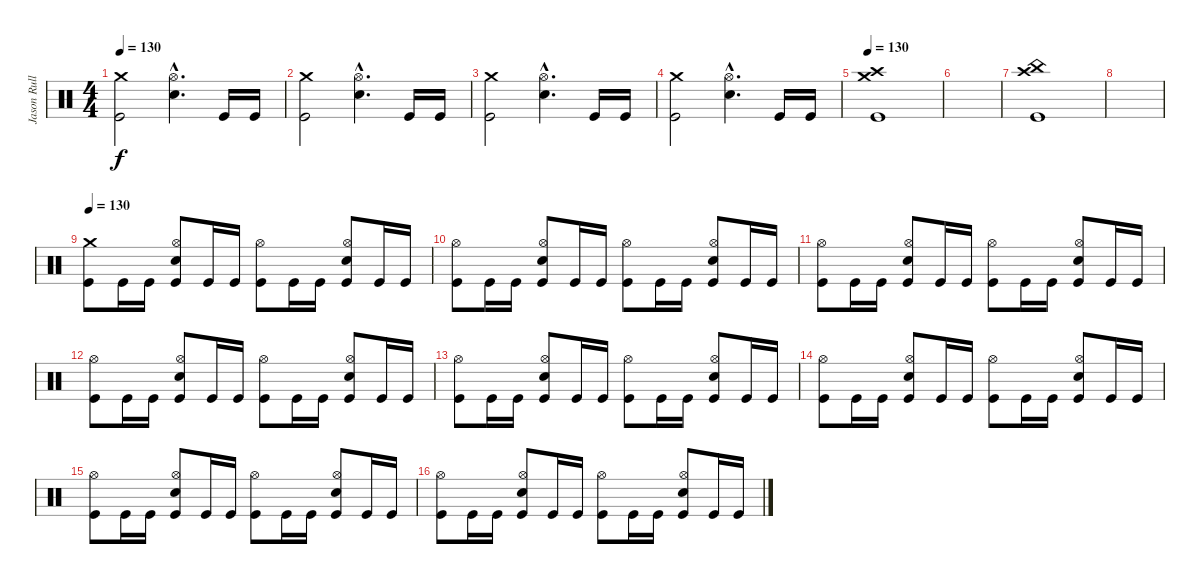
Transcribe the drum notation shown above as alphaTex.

\track ("Jason Rullo - Batterie" "Jason Rull") {instrument percussion}
\staff {score}
\articulation defaults
\ts (4 4)
\tempo 130
\clef neutral
\ks c
("Crash medium (hit)" "Kick (hit)").2{dy f} ("Hi-Hat (open)"{hac} "Snare (hit) 2"{hac}).4{d} "Kick (hit)".16 "Kick (hit)".16 |
("Crash medium (hit)" "Kick (hit)").2 ("Hi-Hat (open)"{hac} "Snare (hit) 2"{hac}).4{d} "Kick (hit)".16 "Kick (hit)".16 |
("Crash medium (hit)" "Kick (hit)").2 ("Hi-Hat (open)"{hac} "Snare (hit) 2"{hac}).4{d} "Kick (hit)".16 "Kick (hit)".16 |
("Crash medium (hit)" "Kick (hit)").2 ("Hi-Hat (open)"{hac} "Snare (hit) 2"{hac}).4{d} "Kick (hit)".16 "Kick (hit)".16 |
\tempo 130
("Crash medium (hit)" "Crash high (hit)" "Kick (hit)").1 |
|
("China (hit)" "Crash high (hit)" "Kick (hit)").1 |
|
\tempo 130
("Crash medium (hit)" "Kick (hit)").8 "Kick (hit)".16 "Kick (hit)".16 ("Hi-Hat (open)" "Snare (hit) 2" "Kick (hit)").8 "Kick (hit)".16 "Kick (hit)".16 ("Hi-Hat (open)" "Kick (hit)").8 "Kick (hit)".16 "Kick (hit)".16 ("Hi-Hat (open)" "Snare (hit) 2" "Kick (hit)").8 "Kick (hit)".16 "Kick (hit)".16 |
("Hi-Hat (open)" "Kick (hit)").8 "Kick (hit)".16 "Kick (hit)".16 ("Hi-Hat (open)" "Snare (hit) 2" "Kick (hit)").8 "Kick (hit)".16 "Kick (hit)".16 ("Hi-Hat (open)" "Kick (hit)").8 "Kick (hit)".16 "Kick (hit)".16 ("Hi-Hat (open)" "Snare (hit) 2" "Kick (hit)").8 "Kick (hit)".16 "Kick (hit)".16 |
("Hi-Hat (open)" "Kick (hit)").8 "Kick (hit)".16 "Kick (hit)".16 ("Hi-Hat (open)" "Snare (hit) 2" "Kick (hit)").8 "Kick (hit)".16 "Kick (hit)".16 ("Hi-Hat (open)" "Kick (hit)").8 "Kick (hit)".16 "Kick (hit)".16 ("Hi-Hat (open)" "Snare (hit) 2" "Kick (hit)").8 "Kick (hit)".16 "Kick (hit)".16 |
("Hi-Hat (open)" "Kick (hit)").8 "Kick (hit)".16 "Kick (hit)".16 ("Hi-Hat (open)" "Snare (hit) 2" "Kick (hit)").8 "Kick (hit)".16 "Kick (hit)".16 ("Hi-Hat (open)" "Kick (hit)").8 "Kick (hit)".16 "Kick (hit)".16 ("Hi-Hat (open)" "Snare (hit) 2" "Kick (hit)").8 "Kick (hit)".16 "Kick (hit)".16 |
("Hi-Hat (open)" "Kick (hit)").8 "Kick (hit)".16 "Kick (hit)".16 ("Hi-Hat (open)" "Snare (hit) 2" "Kick (hit)").8 "Kick (hit)".16 "Kick (hit)".16 ("Hi-Hat (open)" "Kick (hit)").8 "Kick (hit)".16 "Kick (hit)".16 ("Hi-Hat (open)" "Snare (hit) 2" "Kick (hit)").8 "Kick (hit)".16 "Kick (hit)".16 |
("Hi-Hat (open)" "Kick (hit)").8 "Kick (hit)".16 "Kick (hit)".16 ("Hi-Hat (open)" "Snare (hit) 2" "Kick (hit)").8 "Kick (hit)".16 "Kick (hit)".16 ("Hi-Hat (open)" "Kick (hit)").8 "Kick (hit)".16 "Kick (hit)".16 ("Hi-Hat (open)" "Snare (hit) 2" "Kick (hit)").8 "Kick (hit)".16 "Kick (hit)".16 |
("Hi-Hat (open)" "Kick (hit)").8 "Kick (hit)".16 "Kick (hit)".16 ("Hi-Hat (open)" "Snare (hit) 2" "Kick (hit)").8 "Kick (hit)".16 "Kick (hit)".16 ("Hi-Hat (open)" "Kick (hit)").8 "Kick (hit)".16 "Kick (hit)".16 ("Hi-Hat (open)" "Snare (hit) 2" "Kick (hit)").8 "Kick (hit)".16 "Kick (hit)".16 |
("Hi-Hat (open)" "Kick (hit)").8 "Kick (hit)".16 "Kick (hit)".16 ("Hi-Hat (open)" "Snare (hit) 2" "Kick (hit)").8 "Kick (hit)".16 "Kick (hit)".16 ("Hi-Hat (open)" "Kick (hit)").8 "Kick (hit)".16 "Kick (hit)".16 ("Hi-Hat (open)" "Snare (hit) 2" "Kick (hit)").8 "Kick (hit)".16 "Kick (hit)".16
